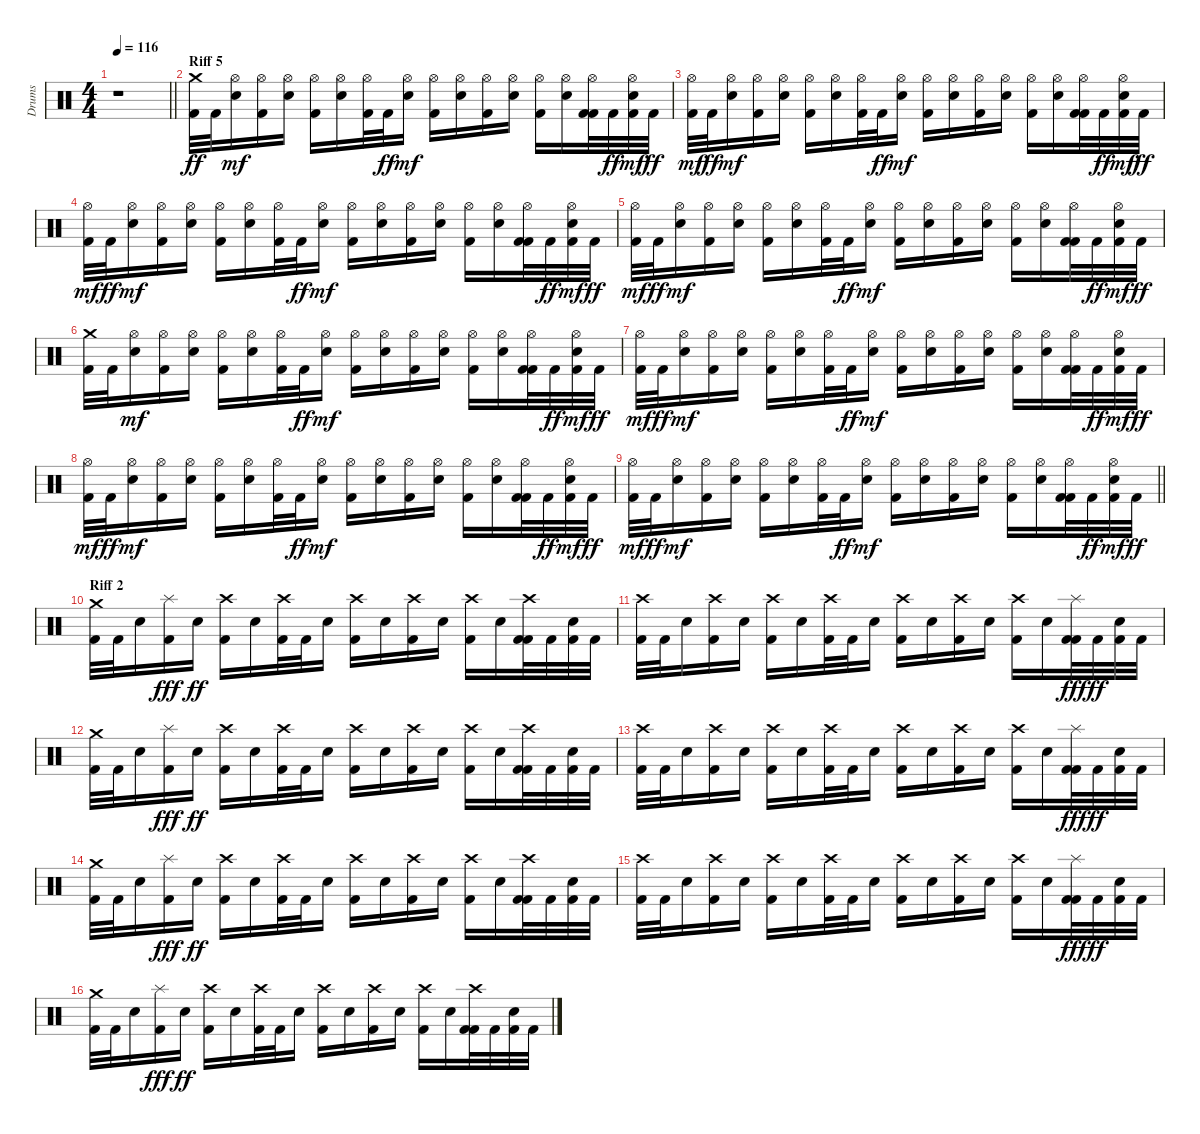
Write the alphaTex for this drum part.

\track ("Drums" "Drums") {instrument percussion}
\staff {score}
\articulation defaults
\ts (4 4)
\tempo 116
\clef neutral
\barLineRight lightlight
\ks c
r.1{dy f} |
\section ("" "Riff 5")
("Kick (hit) 2" "Crash medium (hit)").32{dy ff} "Kick (hit) 2".32 ("Snare (hit) 2" "Hi-Hat (open)").16{dy mf} ("Kick (hit) 2" "Hi-Hat (open)").16 ("Snare (hit) 2" "Hi-Hat (open)").16 ("Kick (hit) 2" "Hi-Hat (open)").16 ("Snare (hit) 2" "Hi-Hat (open)").16 ("Kick (hit) 2" "Hi-Hat (open)").32 "Kick (hit) 2".32{dy ff} ("Snare (hit) 2" "Hi-Hat (open)").16{dy mf} ("Kick (hit) 2" "Hi-Hat (open)").16 ("Snare (hit) 2" "Hi-Hat (open)").16 ("Kick (hit) 2" "Hi-Hat (open)").16 ("Snare (hit) 2" "Hi-Hat (open)").16 ("Kick (hit) 2" "Hi-Hat (open)").16 ("Snare (hit) 2" "Hi-Hat (open)").16 ("Kick (hit) 2" "Kick (hit) 2" "Hi-Hat (open)").32 "Kick (hit) 2".32{dy ff} ("Kick (hit) 2" "Snare (hit) 2" "Hi-Hat (open)").32{dy mf} "Kick (hit) 2".32{dy ff} |
("Kick (hit) 2" "Hi-Hat (open)").32{dy mf} "Kick (hit) 2".32{dy ff} ("Snare (hit) 2" "Hi-Hat (open)").16{dy mf} ("Kick (hit) 2" "Hi-Hat (open)").16 ("Snare (hit) 2" "Hi-Hat (open)").16 ("Kick (hit) 2" "Hi-Hat (open)").16 ("Snare (hit) 2" "Hi-Hat (open)").16 ("Kick (hit) 2" "Hi-Hat (open)").32 "Kick (hit) 2".32{dy ff} ("Snare (hit) 2" "Hi-Hat (open)").16{dy mf} ("Kick (hit) 2" "Hi-Hat (open)").16 ("Snare (hit) 2" "Hi-Hat (open)").16 ("Kick (hit) 2" "Hi-Hat (open)").16 ("Snare (hit) 2" "Hi-Hat (open)").16 ("Kick (hit) 2" "Hi-Hat (open)").16 ("Snare (hit) 2" "Hi-Hat (open)").16 ("Kick (hit) 2" "Kick (hit) 2" "Hi-Hat (open)").32 "Kick (hit) 2".32{dy ff} ("Kick (hit) 2" "Snare (hit) 2" "Hi-Hat (open)").32{dy mf} "Kick (hit) 2".32{dy ff} |
("Kick (hit) 2" "Hi-Hat (open)").32{dy mf} "Kick (hit) 2".32{dy ff} ("Snare (hit) 2" "Hi-Hat (open)").16{dy mf} ("Kick (hit) 2" "Hi-Hat (open)").16 ("Snare (hit) 2" "Hi-Hat (open)").16 ("Kick (hit) 2" "Hi-Hat (open)").16 ("Snare (hit) 2" "Hi-Hat (open)").16 ("Kick (hit) 2" "Hi-Hat (open)").32 "Kick (hit) 2".32{dy ff} ("Snare (hit) 2" "Hi-Hat (open)").16{dy mf} ("Kick (hit) 2" "Hi-Hat (open)").16 ("Snare (hit) 2" "Hi-Hat (open)").16 ("Kick (hit) 2" "Hi-Hat (open)").16 ("Snare (hit) 2" "Hi-Hat (open)").16 ("Kick (hit) 2" "Hi-Hat (open)").16 ("Snare (hit) 2" "Hi-Hat (open)").16 ("Kick (hit) 2" "Kick (hit) 2" "Hi-Hat (open)").32 "Kick (hit) 2".32{dy ff} ("Kick (hit) 2" "Snare (hit) 2" "Hi-Hat (open)").32{dy mf} "Kick (hit) 2".32{dy ff} |
("Kick (hit) 2" "Hi-Hat (open)").32{dy mf} "Kick (hit) 2".32{dy ff} ("Snare (hit) 2" "Hi-Hat (open)").16{dy mf} ("Kick (hit) 2" "Hi-Hat (open)").16 ("Snare (hit) 2" "Hi-Hat (open)").16 ("Kick (hit) 2" "Hi-Hat (open)").16 ("Snare (hit) 2" "Hi-Hat (open)").16 ("Kick (hit) 2" "Hi-Hat (open)").32 "Kick (hit) 2".32{dy ff} ("Snare (hit) 2" "Hi-Hat (open)").16{dy mf} ("Kick (hit) 2" "Hi-Hat (open)").16 ("Snare (hit) 2" "Hi-Hat (open)").16 ("Kick (hit) 2" "Hi-Hat (open)").16 ("Snare (hit) 2" "Hi-Hat (open)").16 ("Kick (hit) 2" "Hi-Hat (open)").16 ("Snare (hit) 2" "Hi-Hat (open)").16 ("Kick (hit) 2" "Kick (hit) 2" "Hi-Hat (open)").32 "Kick (hit) 2".32{dy ff} ("Kick (hit) 2" "Snare (hit) 2" "Hi-Hat (open)").32{dy mf} "Kick (hit) 2".32{dy ff} |
("Kick (hit) 2" "Crash medium (hit)").32 "Kick (hit) 2".32 ("Snare (hit) 2" "Hi-Hat (open)").16{dy mf} ("Kick (hit) 2" "Hi-Hat (open)").16 ("Snare (hit) 2" "Hi-Hat (open)").16 ("Kick (hit) 2" "Hi-Hat (open)").16 ("Snare (hit) 2" "Hi-Hat (open)").16 ("Kick (hit) 2" "Hi-Hat (open)").32 "Kick (hit) 2".32{dy ff} ("Snare (hit) 2" "Hi-Hat (open)").16{dy mf} ("Kick (hit) 2" "Hi-Hat (open)").16 ("Snare (hit) 2" "Hi-Hat (open)").16 ("Kick (hit) 2" "Hi-Hat (open)").16 ("Snare (hit) 2" "Hi-Hat (open)").16 ("Kick (hit) 2" "Hi-Hat (open)").16 ("Snare (hit) 2" "Hi-Hat (open)").16 ("Kick (hit) 2" "Kick (hit) 2" "Hi-Hat (open)").32 "Kick (hit) 2".32{dy ff} ("Kick (hit) 2" "Snare (hit) 2" "Hi-Hat (open)").32{dy mf} "Kick (hit) 2".32{dy ff} |
("Kick (hit) 2" "Hi-Hat (open)").32{dy mf} "Kick (hit) 2".32{dy ff} ("Snare (hit) 2" "Hi-Hat (open)").16{dy mf} ("Kick (hit) 2" "Hi-Hat (open)").16 ("Snare (hit) 2" "Hi-Hat (open)").16 ("Kick (hit) 2" "Hi-Hat (open)").16 ("Snare (hit) 2" "Hi-Hat (open)").16 ("Kick (hit) 2" "Hi-Hat (open)").32 "Kick (hit) 2".32{dy ff} ("Snare (hit) 2" "Hi-Hat (open)").16{dy mf} ("Kick (hit) 2" "Hi-Hat (open)").16 ("Snare (hit) 2" "Hi-Hat (open)").16 ("Kick (hit) 2" "Hi-Hat (open)").16 ("Snare (hit) 2" "Hi-Hat (open)").16 ("Kick (hit) 2" "Hi-Hat (open)").16 ("Snare (hit) 2" "Hi-Hat (open)").16 ("Kick (hit) 2" "Kick (hit) 2" "Hi-Hat (open)").32 "Kick (hit) 2".32{dy ff} ("Kick (hit) 2" "Snare (hit) 2" "Hi-Hat (open)").32{dy mf} "Kick (hit) 2".32{dy ff} |
("Kick (hit) 2" "Hi-Hat (open)").32{dy mf} "Kick (hit) 2".32{dy ff} ("Snare (hit) 2" "Hi-Hat (open)").16{dy mf} ("Kick (hit) 2" "Hi-Hat (open)").16 ("Snare (hit) 2" "Hi-Hat (open)").16 ("Kick (hit) 2" "Hi-Hat (open)").16 ("Snare (hit) 2" "Hi-Hat (open)").16 ("Kick (hit) 2" "Hi-Hat (open)").32 "Kick (hit) 2".32{dy ff} ("Snare (hit) 2" "Hi-Hat (open)").16{dy mf} ("Kick (hit) 2" "Hi-Hat (open)").16 ("Snare (hit) 2" "Hi-Hat (open)").16 ("Kick (hit) 2" "Hi-Hat (open)").16 ("Snare (hit) 2" "Hi-Hat (open)").16 ("Kick (hit) 2" "Hi-Hat (open)").16 ("Snare (hit) 2" "Hi-Hat (open)").16 ("Kick (hit) 2" "Kick (hit) 2" "Hi-Hat (open)").32 "Kick (hit) 2".32{dy ff} ("Kick (hit) 2" "Snare (hit) 2" "Hi-Hat (open)").32{dy mf} "Kick (hit) 2".32{dy ff} |
\barLineRight lightlight
("Kick (hit) 2" "Hi-Hat (open)").32{dy mf} "Kick (hit) 2".32{dy ff} ("Snare (hit) 2" "Hi-Hat (open)").16{dy mf} ("Kick (hit) 2" "Hi-Hat (open)").16 ("Snare (hit) 2" "Hi-Hat (open)").16 ("Kick (hit) 2" "Hi-Hat (open)").16 ("Snare (hit) 2" "Hi-Hat (open)").16 ("Kick (hit) 2" "Hi-Hat (open)").32 "Kick (hit) 2".32{dy ff} ("Snare (hit) 2" "Hi-Hat (open)").16{dy mf} ("Kick (hit) 2" "Hi-Hat (open)").16 ("Snare (hit) 2" "Hi-Hat (open)").16 ("Kick (hit) 2" "Hi-Hat (open)").16 ("Snare (hit) 2" "Hi-Hat (open)").16 ("Kick (hit) 2" "Hi-Hat (open)").16 ("Snare (hit) 2" "Hi-Hat (open)").16 ("Kick (hit) 2" "Kick (hit) 2" "Hi-Hat (open)").32 "Kick (hit) 2".32{dy ff} ("Kick (hit) 2" "Snare (hit) 2" "Hi-Hat (open)").32{dy mf} "Kick (hit) 2".32{dy ff} |
\section ("" "Riff 2")
("Kick (hit) 2" "Crash medium (hit)").32 "Kick (hit) 2".32 "Snare (hit) 2".16 ("Kick (hit) 2" "Splash (hit)").16{dy fff} "Snare (hit) 2".16{dy ff} ("Kick (hit) 2" "Crash high (hit)").16 "Snare (hit) 2".16 ("Kick (hit) 2" "Crash high (hit)").32 "Kick (hit) 2".32 "Snare (hit) 2".16 ("Kick (hit) 2" "Crash high (hit)").16 "Snare (hit) 2".16 ("Kick (hit) 2" "Crash high (hit)").16 "Snare (hit) 2".16 ("Kick (hit) 2" "Crash high (hit)").16 "Snare (hit) 2".16 ("Kick (hit) 2" "Kick (hit) 2" "Crash high (hit)").32 "Kick (hit) 2".32 ("Kick (hit) 2" "Snare (hit) 2").32 "Kick (hit) 2".32 |
("Kick (hit) 2" "Crash high (hit)").32 "Kick (hit) 2".32 "Snare (hit) 2".16 ("Kick (hit) 2" "Crash high (hit)").16 "Snare (hit) 2".16 ("Kick (hit) 2" "Crash high (hit)").16 "Snare (hit) 2".16 ("Kick (hit) 2" "Crash high (hit)").32 "Kick (hit) 2".32 "Snare (hit) 2".16 ("Kick (hit) 2" "Crash high (hit)").16 "Snare (hit) 2".16 ("Kick (hit) 2" "Crash high (hit)").16 "Snare (hit) 2".16 ("Kick (hit) 2" "Crash high (hit)").16 "Snare (hit) 2".16 ("Kick (hit) 2" "Kick (hit) 2" "Splash (hit)").32{dy fff} "Kick (hit) 2".32{dy ff} ("Kick (hit) 2" "Snare (hit) 2").32 "Kick (hit) 2".32 |
("Kick (hit) 2" "Crash medium (hit)").32 "Kick (hit) 2".32 "Snare (hit) 2".16 ("Kick (hit) 2" "Splash (hit)").16{dy fff} "Snare (hit) 2".16{dy ff} ("Kick (hit) 2" "Crash high (hit)").16 "Snare (hit) 2".16 ("Kick (hit) 2" "Crash high (hit)").32 "Kick (hit) 2".32 "Snare (hit) 2".16 ("Kick (hit) 2" "Crash high (hit)").16 "Snare (hit) 2".16 ("Kick (hit) 2" "Crash high (hit)").16 "Snare (hit) 2".16 ("Kick (hit) 2" "Crash high (hit)").16 "Snare (hit) 2".16 ("Kick (hit) 2" "Kick (hit) 2" "Crash high (hit)").32 "Kick (hit) 2".32 ("Kick (hit) 2" "Snare (hit) 2").32 "Kick (hit) 2".32 |
("Kick (hit) 2" "Crash high (hit)").32 "Kick (hit) 2".32 "Snare (hit) 2".16 ("Kick (hit) 2" "Crash high (hit)").16 "Snare (hit) 2".16 ("Kick (hit) 2" "Crash high (hit)").16 "Snare (hit) 2".16 ("Kick (hit) 2" "Crash high (hit)").32 "Kick (hit) 2".32 "Snare (hit) 2".16 ("Kick (hit) 2" "Crash high (hit)").16 "Snare (hit) 2".16 ("Kick (hit) 2" "Crash high (hit)").16 "Snare (hit) 2".16 ("Kick (hit) 2" "Crash high (hit)").16 "Snare (hit) 2".16 ("Kick (hit) 2" "Kick (hit) 2" "Splash (hit)").32{dy fff} "Kick (hit) 2".32{dy ff} ("Kick (hit) 2" "Snare (hit) 2").32 "Kick (hit) 2".32 |
("Kick (hit) 2" "Crash medium (hit)").32 "Kick (hit) 2".32 "Snare (hit) 2".16 ("Kick (hit) 2" "Splash (hit)").16{dy fff} "Snare (hit) 2".16{dy ff} ("Kick (hit) 2" "Crash high (hit)").16 "Snare (hit) 2".16 ("Kick (hit) 2" "Crash high (hit)").32 "Kick (hit) 2".32 "Snare (hit) 2".16 ("Kick (hit) 2" "Crash high (hit)").16 "Snare (hit) 2".16 ("Kick (hit) 2" "Crash high (hit)").16 "Snare (hit) 2".16 ("Kick (hit) 2" "Crash high (hit)").16 "Snare (hit) 2".16 ("Kick (hit) 2" "Kick (hit) 2" "Crash high (hit)").32 "Kick (hit) 2".32 ("Kick (hit) 2" "Snare (hit) 2").32 "Kick (hit) 2".32 |
("Kick (hit) 2" "Crash high (hit)").32 "Kick (hit) 2".32 "Snare (hit) 2".16 ("Kick (hit) 2" "Crash high (hit)").16 "Snare (hit) 2".16 ("Kick (hit) 2" "Crash high (hit)").16 "Snare (hit) 2".16 ("Kick (hit) 2" "Crash high (hit)").32 "Kick (hit) 2".32 "Snare (hit) 2".16 ("Kick (hit) 2" "Crash high (hit)").16 "Snare (hit) 2".16 ("Kick (hit) 2" "Crash high (hit)").16 "Snare (hit) 2".16 ("Kick (hit) 2" "Crash high (hit)").16 "Snare (hit) 2".16 ("Kick (hit) 2" "Kick (hit) 2" "Splash (hit)").32{dy fff} "Kick (hit) 2".32{dy ff} ("Kick (hit) 2" "Snare (hit) 2").32 "Kick (hit) 2".32 |
("Kick (hit) 2" "Crash medium (hit)").32 "Kick (hit) 2".32 "Snare (hit) 2".16 ("Kick (hit) 2" "Splash (hit)").16{dy fff} "Snare (hit) 2".16{dy ff} ("Kick (hit) 2" "Crash high (hit)").16 "Snare (hit) 2".16 ("Kick (hit) 2" "Crash high (hit)").32 "Kick (hit) 2".32 "Snare (hit) 2".16 ("Kick (hit) 2" "Crash high (hit)").16 "Snare (hit) 2".16 ("Kick (hit) 2" "Crash high (hit)").16 "Snare (hit) 2".16 ("Kick (hit) 2" "Crash high (hit)").16 "Snare (hit) 2".16 ("Kick (hit) 2" "Kick (hit) 2" "Crash high (hit)").32 "Kick (hit) 2".32 ("Kick (hit) 2" "Snare (hit) 2").32 "Kick (hit) 2".32
